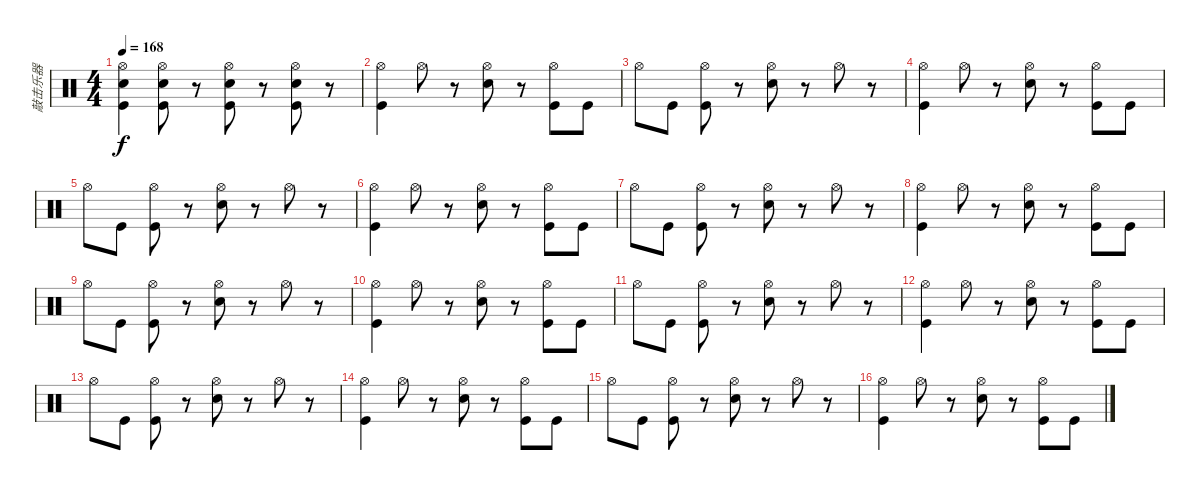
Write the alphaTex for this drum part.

\track ("敲击乐器" "敲击乐器") {instrument percussion}
\staff {score}
\articulation defaults
\ts (4 4)
\tempo 168
\clef neutral
\ks c
("Hi-Hat (open)" "Snare (hit) 2" "Kick (hit)").4{dy f} ("Hi-Hat (open)" "Snare (hit) 2" "Kick (hit)").8 r.8 ("Hi-Hat (open)" "Snare (hit) 2" "Kick (hit)").8 r.8 ("Hi-Hat (open)" "Snare (hit) 2" "Kick (hit)").8 r.8 |
("Hi-Hat (open)" "Kick (hit)").4 "Hi-Hat (open)".8 r.8 ("Hi-Hat (open)" "Snare (hit) 2").8 r.8 ("Hi-Hat (open)" "Kick (hit)").8 "Kick (hit)".8 |
"Hi-Hat (open)".8 "Kick (hit)".8 ("Hi-Hat (open)" "Kick (hit)").8 r.8 ("Hi-Hat (open)" "Snare (hit) 2").8 r.8 "Hi-Hat (open)".8 r.8 |
("Hi-Hat (open)" "Kick (hit)").4 "Hi-Hat (open)".8 r.8 ("Hi-Hat (open)" "Snare (hit) 2").8 r.8 ("Hi-Hat (open)" "Kick (hit)").8 "Kick (hit)".8 |
"Hi-Hat (open)".8 "Kick (hit)".8 ("Hi-Hat (open)" "Kick (hit)").8 r.8 ("Hi-Hat (open)" "Snare (hit) 2").8 r.8 "Hi-Hat (open)".8 r.8 |
("Hi-Hat (open)" "Kick (hit)").4 "Hi-Hat (open)".8 r.8 ("Hi-Hat (open)" "Snare (hit) 2").8 r.8 ("Hi-Hat (open)" "Kick (hit)").8 "Kick (hit)".8 |
"Hi-Hat (open)".8 "Kick (hit)".8 ("Hi-Hat (open)" "Kick (hit)").8 r.8 ("Hi-Hat (open)" "Snare (hit) 2").8 r.8 "Hi-Hat (open)".8 r.8 |
("Hi-Hat (open)" "Kick (hit)").4 "Hi-Hat (open)".8 r.8 ("Hi-Hat (open)" "Snare (hit) 2").8 r.8 ("Hi-Hat (open)" "Kick (hit)").8 "Kick (hit)".8 |
"Hi-Hat (open)".8 "Kick (hit)".8 ("Hi-Hat (open)" "Kick (hit)").8 r.8 ("Hi-Hat (open)" "Snare (hit) 2").8 r.8 "Hi-Hat (open)".8 r.8 |
("Hi-Hat (open)" "Kick (hit)").4 "Hi-Hat (open)".8 r.8 ("Hi-Hat (open)" "Snare (hit) 2").8 r.8 ("Hi-Hat (open)" "Kick (hit)").8 "Kick (hit)".8 |
"Hi-Hat (open)".8 "Kick (hit)".8 ("Hi-Hat (open)" "Kick (hit)").8 r.8 ("Hi-Hat (open)" "Snare (hit) 2").8 r.8 "Hi-Hat (open)".8 r.8 |
("Hi-Hat (open)" "Kick (hit)").4 "Hi-Hat (open)".8 r.8 ("Hi-Hat (open)" "Snare (hit) 2").8 r.8 ("Hi-Hat (open)" "Kick (hit)").8 "Kick (hit)".8 |
"Hi-Hat (open)".8 "Kick (hit)".8 ("Hi-Hat (open)" "Kick (hit)").8 r.8 ("Hi-Hat (open)" "Snare (hit) 2").8 r.8 "Hi-Hat (open)".8 r.8 |
("Hi-Hat (open)" "Kick (hit)").4 "Hi-Hat (open)".8 r.8 ("Hi-Hat (open)" "Snare (hit) 2").8 r.8 ("Hi-Hat (open)" "Kick (hit)").8 "Kick (hit)".8 |
"Hi-Hat (open)".8 "Kick (hit)".8 ("Hi-Hat (open)" "Kick (hit)").8 r.8 ("Hi-Hat (open)" "Snare (hit) 2").8 r.8 "Hi-Hat (open)".8 r.8 |
("Hi-Hat (open)" "Kick (hit)").4 "Hi-Hat (open)".8 r.8 ("Hi-Hat (open)" "Snare (hit) 2").8 r.8 ("Hi-Hat (open)" "Kick (hit)").8 "Kick (hit)".8
